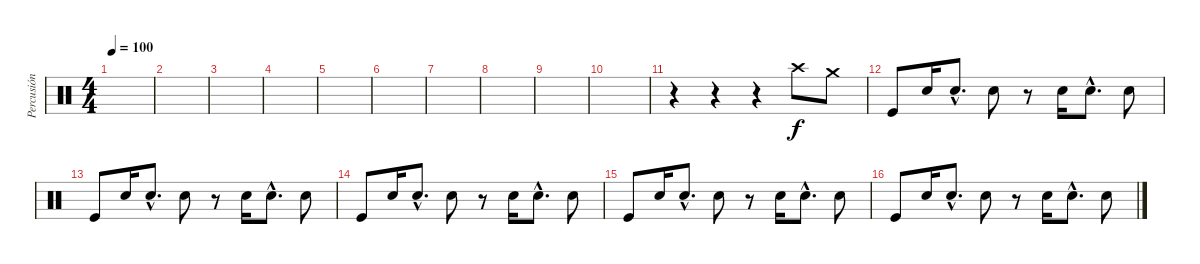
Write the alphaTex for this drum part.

\track ("Percusión" "Percusión") {instrument percussion}
\staff {score}
\articulation defaults
\ts (4 4)
\tempo 100
\clef neutral
\ks c
|
|
|
|
|
|
|
|
|
|
r.4 r.4 r.4 "Crash high (hit)".8 "Crash medium (hit)".8 |
"Kick (hit)".8 "Snare (hit) 2".16 "Snare (hit) 2"{hac}.8{d} "Snare (hit) 2".8 r.8 "Snare (hit) 2".16 "Snare (hit) 2"{hac}.8{d} "Snare (hit) 2".8 |
"Kick (hit)".8 "Snare (hit) 2".16 "Snare (hit) 2"{hac}.8{d} "Snare (hit) 2".8 r.8 "Snare (hit) 2".16 "Snare (hit) 2"{hac}.8{d} "Snare (hit) 2".8 |
"Kick (hit)".8 "Snare (hit) 2".16 "Snare (hit) 2"{hac}.8{d} "Snare (hit) 2".8 r.8 "Snare (hit) 2".16 "Snare (hit) 2"{hac}.8{d} "Snare (hit) 2".8 |
"Kick (hit)".8 "Snare (hit) 2".16 "Snare (hit) 2"{hac}.8{d} "Snare (hit) 2".8 r.8 "Snare (hit) 2".16 "Snare (hit) 2"{hac}.8{d} "Snare (hit) 2".8 |
"Kick (hit)".8 "Snare (hit) 2".16 "Snare (hit) 2"{hac}.8{d} "Snare (hit) 2".8 r.8 "Snare (hit) 2".16 "Snare (hit) 2"{hac}.8{d} "Snare (hit) 2".8
